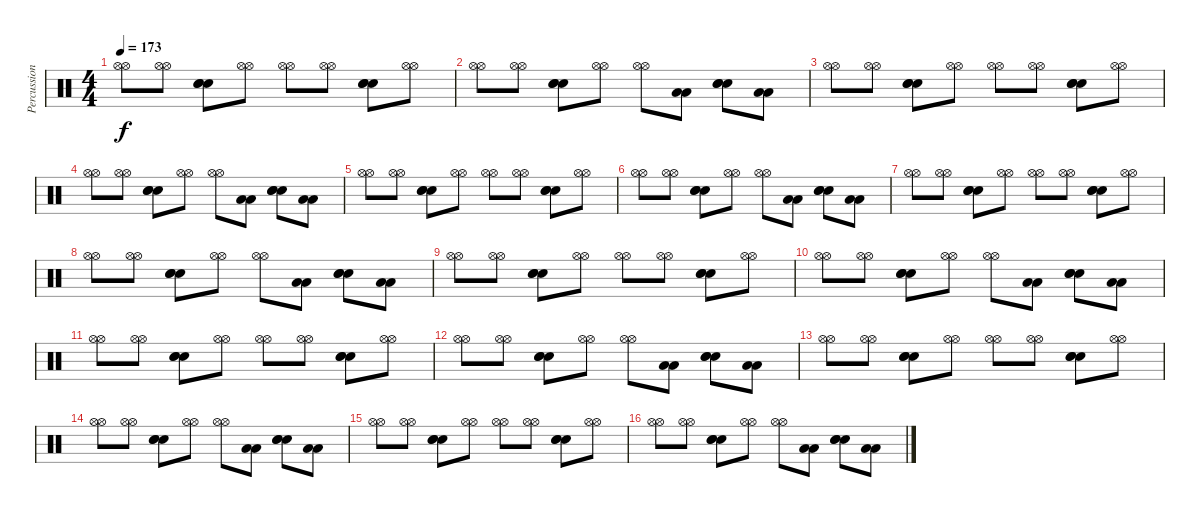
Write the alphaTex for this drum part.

\track ("Percussion" "Percussion") {instrument percussion}
\staff {score}
\articulation defaults
\ts (4 4)
\tempo 173
\clef neutral
\ks c
("Hi-Hat (open)" "Hi-Hat (open)").8{dy f} ("Hi-Hat (open)" "Hi-Hat (open)").8 ("Electric Snare (hit)" "Electric Snare (hit)" "Electric Snare (hit)").8 ("Hi-Hat (open)" "Hi-Hat (open)").8 ("Hi-Hat (open)" "Hi-Hat (open)").8 ("Hi-Hat (open)" "Hi-Hat (open)").8 ("Electric Snare (hit)" "Electric Snare (hit)" "Electric Snare (hit)").8 ("Hi-Hat (open)" "Hi-Hat (open)").8 |
("Hi-Hat (open)" "Hi-Hat (open)").8 ("Hi-Hat (open)" "Hi-Hat (open)").8 ("Electric Snare (hit)" "Electric Snare (hit)" "Electric Snare (hit)").8 ("Hi-Hat (open)" "Hi-Hat (open)").8 ("Hi-Hat (open)" "Hi-Hat (open)").8 ("Low Tom (hit)" "Low Tom (hit)").8 ("Electric Snare (hit)" "Electric Snare (hit)" "Electric Snare (hit)").8 ("Low Tom (hit)" "Low Tom (hit)").8 |
("Hi-Hat (open)" "Hi-Hat (open)").8 ("Hi-Hat (open)" "Hi-Hat (open)").8 ("Electric Snare (hit)" "Electric Snare (hit)" "Electric Snare (hit)").8 ("Hi-Hat (open)" "Hi-Hat (open)").8 ("Hi-Hat (open)" "Hi-Hat (open)").8 ("Hi-Hat (open)" "Hi-Hat (open)").8 ("Electric Snare (hit)" "Electric Snare (hit)" "Electric Snare (hit)").8 ("Hi-Hat (open)" "Hi-Hat (open)").8 |
("Hi-Hat (open)" "Hi-Hat (open)").8 ("Hi-Hat (open)" "Hi-Hat (open)").8 ("Electric Snare (hit)" "Electric Snare (hit)" "Electric Snare (hit)").8 ("Hi-Hat (open)" "Hi-Hat (open)").8 ("Hi-Hat (open)" "Hi-Hat (open)").8 ("Low Tom (hit)" "Low Tom (hit)").8 ("Electric Snare (hit)" "Electric Snare (hit)" "Electric Snare (hit)").8 ("Low Tom (hit)" "Low Tom (hit)").8 |
("Hi-Hat (open)" "Hi-Hat (open)").8 ("Hi-Hat (open)" "Hi-Hat (open)").8 ("Electric Snare (hit)" "Electric Snare (hit)" "Electric Snare (hit)").8 ("Hi-Hat (open)" "Hi-Hat (open)").8 ("Hi-Hat (open)" "Hi-Hat (open)").8 ("Hi-Hat (open)" "Hi-Hat (open)").8 ("Electric Snare (hit)" "Electric Snare (hit)" "Electric Snare (hit)").8 ("Hi-Hat (open)" "Hi-Hat (open)").8 |
("Hi-Hat (open)" "Hi-Hat (open)").8 ("Hi-Hat (open)" "Hi-Hat (open)").8 ("Electric Snare (hit)" "Electric Snare (hit)" "Electric Snare (hit)").8 ("Hi-Hat (open)" "Hi-Hat (open)").8 ("Hi-Hat (open)" "Hi-Hat (open)").8 ("Low Tom (hit)" "Low Tom (hit)").8 ("Electric Snare (hit)" "Electric Snare (hit)" "Electric Snare (hit)").8 ("Low Tom (hit)" "Low Tom (hit)").8 |
("Hi-Hat (open)" "Hi-Hat (open)").8 ("Hi-Hat (open)" "Hi-Hat (open)").8 ("Electric Snare (hit)" "Electric Snare (hit)" "Electric Snare (hit)").8 ("Hi-Hat (open)" "Hi-Hat (open)").8 ("Hi-Hat (open)" "Hi-Hat (open)").8 ("Hi-Hat (open)" "Hi-Hat (open)").8 ("Electric Snare (hit)" "Electric Snare (hit)" "Electric Snare (hit)").8 ("Hi-Hat (open)" "Hi-Hat (open)").8 |
("Hi-Hat (open)" "Hi-Hat (open)").8 ("Hi-Hat (open)" "Hi-Hat (open)").8 ("Electric Snare (hit)" "Electric Snare (hit)" "Electric Snare (hit)").8 ("Hi-Hat (open)" "Hi-Hat (open)").8 ("Hi-Hat (open)" "Hi-Hat (open)").8 ("Low Tom (hit)" "Low Tom (hit)").8 ("Electric Snare (hit)" "Electric Snare (hit)" "Electric Snare (hit)").8 ("Low Tom (hit)" "Low Tom (hit)").8 |
("Hi-Hat (open)" "Hi-Hat (open)").8 ("Hi-Hat (open)" "Hi-Hat (open)").8 ("Electric Snare (hit)" "Electric Snare (hit)" "Electric Snare (hit)").8 ("Hi-Hat (open)" "Hi-Hat (open)").8 ("Hi-Hat (open)" "Hi-Hat (open)").8 ("Hi-Hat (open)" "Hi-Hat (open)").8 ("Electric Snare (hit)" "Electric Snare (hit)" "Electric Snare (hit)").8 ("Hi-Hat (open)" "Hi-Hat (open)").8 |
("Hi-Hat (open)" "Hi-Hat (open)").8 ("Hi-Hat (open)" "Hi-Hat (open)").8 ("Electric Snare (hit)" "Electric Snare (hit)" "Electric Snare (hit)").8 ("Hi-Hat (open)" "Hi-Hat (open)").8 ("Hi-Hat (open)" "Hi-Hat (open)").8 ("Low Tom (hit)" "Low Tom (hit)").8 ("Electric Snare (hit)" "Electric Snare (hit)" "Electric Snare (hit)").8 ("Low Tom (hit)" "Low Tom (hit)").8 |
("Hi-Hat (open)" "Hi-Hat (open)").8 ("Hi-Hat (open)" "Hi-Hat (open)").8 ("Electric Snare (hit)" "Electric Snare (hit)" "Electric Snare (hit)").8 ("Hi-Hat (open)" "Hi-Hat (open)").8 ("Hi-Hat (open)" "Hi-Hat (open)").8 ("Hi-Hat (open)" "Hi-Hat (open)").8 ("Electric Snare (hit)" "Electric Snare (hit)" "Electric Snare (hit)").8 ("Hi-Hat (open)" "Hi-Hat (open)").8 |
("Hi-Hat (open)" "Hi-Hat (open)").8 ("Hi-Hat (open)" "Hi-Hat (open)").8 ("Electric Snare (hit)" "Electric Snare (hit)" "Electric Snare (hit)").8 ("Hi-Hat (open)" "Hi-Hat (open)").8 ("Hi-Hat (open)" "Hi-Hat (open)").8 ("Low Tom (hit)" "Low Tom (hit)").8 ("Electric Snare (hit)" "Electric Snare (hit)" "Electric Snare (hit)").8 ("Low Tom (hit)" "Low Tom (hit)").8 |
("Hi-Hat (open)" "Hi-Hat (open)").8 ("Hi-Hat (open)" "Hi-Hat (open)").8 ("Electric Snare (hit)" "Electric Snare (hit)" "Electric Snare (hit)").8 ("Hi-Hat (open)" "Hi-Hat (open)").8 ("Hi-Hat (open)" "Hi-Hat (open)").8 ("Hi-Hat (open)" "Hi-Hat (open)").8 ("Electric Snare (hit)" "Electric Snare (hit)" "Electric Snare (hit)").8 ("Hi-Hat (open)" "Hi-Hat (open)").8 |
("Hi-Hat (open)" "Hi-Hat (open)").8 ("Hi-Hat (open)" "Hi-Hat (open)").8 ("Electric Snare (hit)" "Electric Snare (hit)" "Electric Snare (hit)").8 ("Hi-Hat (open)" "Hi-Hat (open)").8 ("Hi-Hat (open)" "Hi-Hat (open)").8 ("Low Tom (hit)" "Low Tom (hit)").8 ("Electric Snare (hit)" "Electric Snare (hit)" "Electric Snare (hit)").8 ("Low Tom (hit)" "Low Tom (hit)").8 |
("Hi-Hat (open)" "Hi-Hat (open)").8 ("Hi-Hat (open)" "Hi-Hat (open)").8 ("Electric Snare (hit)" "Electric Snare (hit)" "Electric Snare (hit)").8 ("Hi-Hat (open)" "Hi-Hat (open)").8 ("Hi-Hat (open)" "Hi-Hat (open)").8 ("Hi-Hat (open)" "Hi-Hat (open)").8 ("Electric Snare (hit)" "Electric Snare (hit)" "Electric Snare (hit)").8 ("Hi-Hat (open)" "Hi-Hat (open)").8 |
("Hi-Hat (open)" "Hi-Hat (open)").8 ("Hi-Hat (open)" "Hi-Hat (open)").8 ("Electric Snare (hit)" "Electric Snare (hit)" "Electric Snare (hit)").8 ("Hi-Hat (open)" "Hi-Hat (open)").8 ("Hi-Hat (open)" "Hi-Hat (open)").8 ("Low Tom (hit)" "Low Tom (hit)").8 ("Electric Snare (hit)" "Electric Snare (hit)" "Electric Snare (hit)").8 ("Low Tom (hit)" "Low Tom (hit)").8
